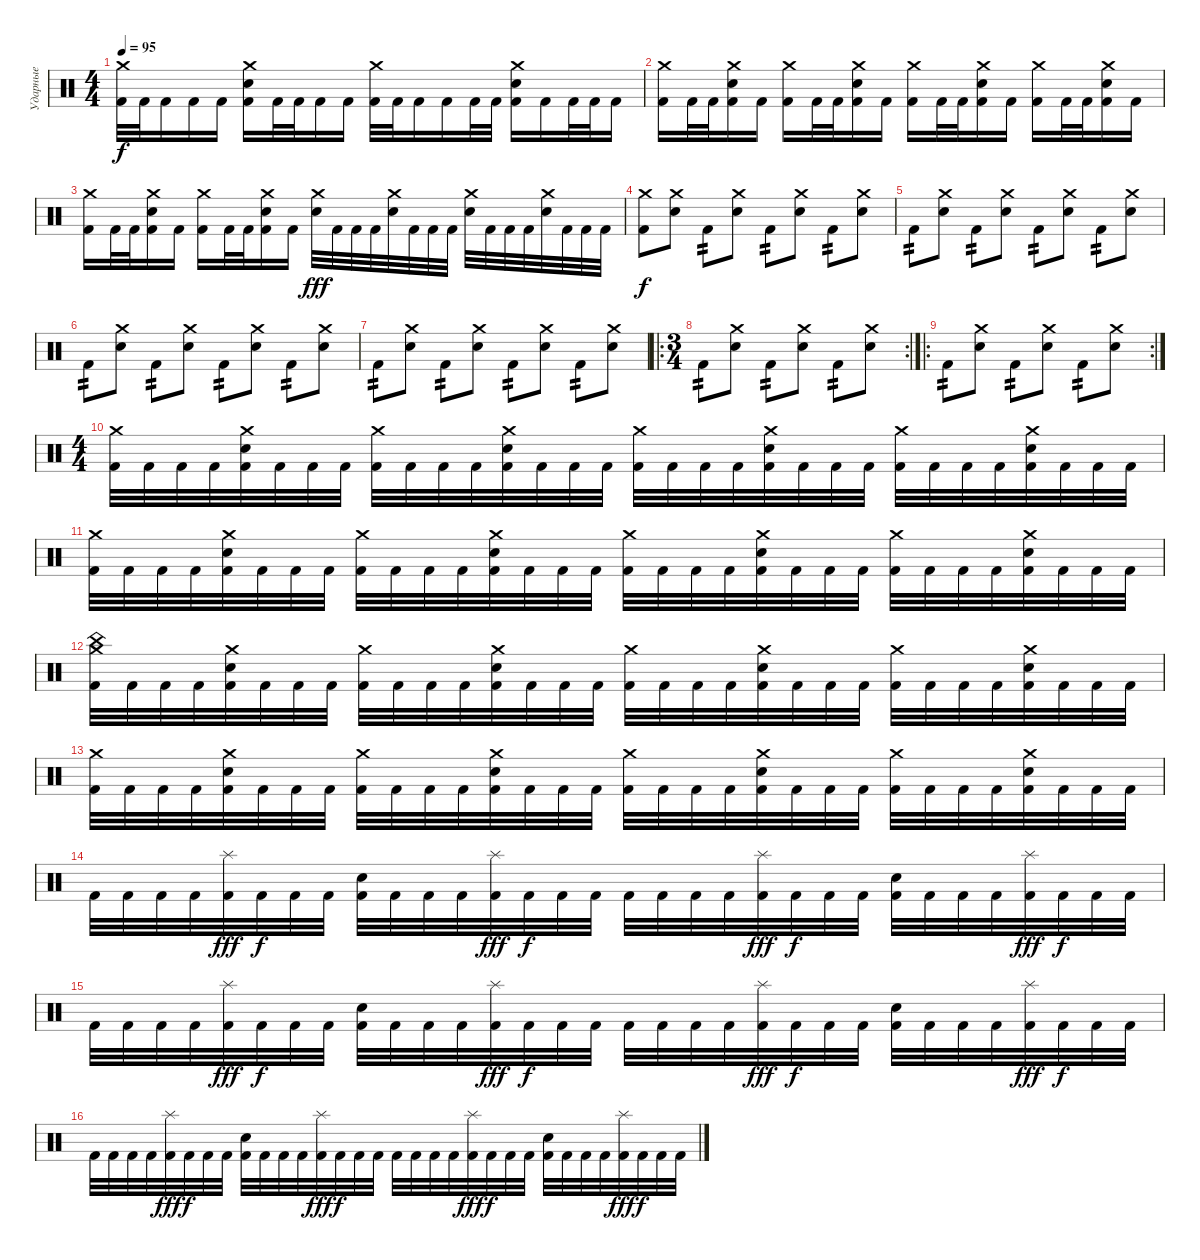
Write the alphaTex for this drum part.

\track ("Ударные" "Ударные") {instrument percussion}
\staff {score}
\articulation defaults
\ts (4 4)
\tempo 95
\clef neutral
\ks c
("Crash medium (hit)" "Kick (hit) 2").32{dy f} "Kick (hit) 2".32 "Kick (hit) 2".16 "Kick (hit) 2".16 "Kick (hit) 2".16 ("Electric Snare (hit)" "Kick (hit) 2" "Crash medium (hit)").16 "Kick (hit) 2".32 "Kick (hit) 2".32 "Kick (hit) 2".16 "Kick (hit) 2".16 ("Crash medium (hit)" "Kick (hit) 2").32 "Kick (hit) 2".32 "Kick (hit) 2".16 "Kick (hit) 2".16 "Kick (hit) 2".32 "Kick (hit) 2".32 ("Electric Snare (hit)" "Kick (hit) 2" "Crash medium (hit)").16 "Kick (hit) 2".16 "Kick (hit) 2".32 "Kick (hit) 2".32 "Kick (hit) 2".16 |
("Kick (hit) 2" "Crash medium (hit)").16 "Kick (hit) 2".32 "Kick (hit) 2".32 ("Kick (hit) 2" "Crash medium (hit)" "Electric Snare (hit)").16 "Kick (hit) 2".16 ("Kick (hit) 2" "Crash medium (hit)").16 "Kick (hit) 2".32 "Kick (hit) 2".32 ("Kick (hit) 2" "Crash medium (hit)" "Electric Snare (hit)").16 "Kick (hit) 2".16 ("Kick (hit) 2" "Crash medium (hit)").16 "Kick (hit) 2".32 "Kick (hit) 2".32 ("Kick (hit) 2" "Crash medium (hit)" "Electric Snare (hit)").16 "Kick (hit) 2".16 ("Kick (hit) 2" "Crash medium (hit)").16 "Kick (hit) 2".32 "Kick (hit) 2".32 ("Kick (hit) 2" "Crash medium (hit)" "Electric Snare (hit)").16 "Kick (hit) 2".16 |
("Kick (hit) 2" "Crash medium (hit)").16 "Kick (hit) 2".32 "Kick (hit) 2".32 ("Kick (hit) 2" "Crash medium (hit)" "Electric Snare (hit)").16 "Kick (hit) 2".16 ("Kick (hit) 2" "Crash medium (hit)").16 "Kick (hit) 2".32 "Kick (hit) 2".32 ("Kick (hit) 2" "Crash medium (hit)" "Electric Snare (hit)").16 "Kick (hit) 2".16 ("Crash medium (hit)" "Electric Snare (hit)").32{dy fff} "Kick (hit) 2".32 "Kick (hit) 2".32 "Kick (hit) 2".32 ("Crash medium (hit)" "Electric Snare (hit)").32 "Kick (hit) 2".32 "Kick (hit) 2".32 "Kick (hit) 2".32 ("Crash medium (hit)" "Electric Snare (hit)").32 "Kick (hit) 2".32 "Kick (hit) 2".32 "Kick (hit) 2".32 ("Crash medium (hit)" "Electric Snare (hit)").32 "Kick (hit) 2".32 "Kick (hit) 2".32 "Kick (hit) 2".32 |
("Crash medium (hit)" "Kick (hit) 2").8{dy f} ("Crash medium (hit)" "Electric Snare (hit)").8 "Kick (hit) 2".8{tp 2} ("Crash medium (hit)" "Electric Snare (hit)").8 "Kick (hit) 2".8{tp 2} ("Crash medium (hit)" "Electric Snare (hit)").8 "Kick (hit) 2".8{tp 2} ("Crash medium (hit)" "Electric Snare (hit)").8 |
"Kick (hit) 2".8{tp 2} ("Crash medium (hit)" "Electric Snare (hit)").8 "Kick (hit) 2".8{tp 2} ("Crash medium (hit)" "Electric Snare (hit)").8 "Kick (hit) 2".8{tp 2} ("Crash medium (hit)" "Electric Snare (hit)").8 "Kick (hit) 2".8{tp 2} ("Crash medium (hit)" "Electric Snare (hit)").8 |
"Kick (hit) 2".8{tp 2} ("Crash medium (hit)" "Electric Snare (hit)").8 "Kick (hit) 2".8{tp 2} ("Crash medium (hit)" "Electric Snare (hit)").8 "Kick (hit) 2".8{tp 2} ("Crash medium (hit)" "Electric Snare (hit)").8 "Kick (hit) 2".8{tp 2} ("Crash medium (hit)" "Electric Snare (hit)").8 |
"Kick (hit) 2".8{tp 2} ("Crash medium (hit)" "Electric Snare (hit)").8 "Kick (hit) 2".8{tp 2} ("Crash medium (hit)" "Electric Snare (hit)").8 "Kick (hit) 2".8{tp 2} ("Crash medium (hit)" "Electric Snare (hit)").8 "Kick (hit) 2".8{tp 2} ("Crash medium (hit)" "Electric Snare (hit)").8 |
\ro
\rc 2
\ts (3 4)
"Kick (hit) 2".8{tp 2} ("Crash medium (hit)" "Electric Snare (hit)").8 "Kick (hit) 2".8{tp 2} ("Crash medium (hit)" "Electric Snare (hit)").8 "Kick (hit) 2".8{tp 2} ("Crash medium (hit)" "Electric Snare (hit)").8 |
\ro
\rc 2 "Kick (hit) 2".8{tp 2}
("Crash medium (hit)" "Electric Snare (hit)").8 "Kick (hit) 2".8{tp 2} ("Crash medium (hit)" "Electric Snare (hit)").8 "Kick (hit) 2".8{tp 2} ("Crash medium (hit)" "Electric Snare (hit)").8 |
\ts (4 4)
("Kick (hit) 2" "Crash medium (hit)").32 "Kick (hit) 2".32 "Kick (hit) 2".32 "Kick (hit) 2".32 ("Kick (hit) 2" "Electric Snare (hit)" "Crash medium (hit)").32 "Kick (hit) 2".32 "Kick (hit) 2".32 "Kick (hit) 2".32 ("Kick (hit) 2" "Crash medium (hit)").32 "Kick (hit) 2".32 "Kick (hit) 2".32 "Kick (hit) 2".32 ("Kick (hit) 2" "Electric Snare (hit)" "Crash medium (hit)").32 "Kick (hit) 2".32 "Kick (hit) 2".32 "Kick (hit) 2".32 ("Kick (hit) 2" "Crash medium (hit)").32 "Kick (hit) 2".32 "Kick (hit) 2".32 "Kick (hit) 2".32 ("Kick (hit) 2" "Electric Snare (hit)" "Crash medium (hit)").32 "Kick (hit) 2".32 "Kick (hit) 2".32 "Kick (hit) 2".32 ("Kick (hit) 2" "Crash medium (hit)").32 "Kick (hit) 2".32 "Kick (hit) 2".32 "Kick (hit) 2".32 ("Kick (hit) 2" "Electric Snare (hit)" "Crash medium (hit)").32 "Kick (hit) 2".32 "Kick (hit) 2".32 "Kick (hit) 2".32 |
("Kick (hit) 2" "Crash medium (hit)").32 "Kick (hit) 2".32 "Kick (hit) 2".32 "Kick (hit) 2".32 ("Kick (hit) 2" "Electric Snare (hit)" "Crash medium (hit)").32 "Kick (hit) 2".32 "Kick (hit) 2".32 "Kick (hit) 2".32 ("Kick (hit) 2" "Crash medium (hit)").32 "Kick (hit) 2".32 "Kick (hit) 2".32 "Kick (hit) 2".32 ("Kick (hit) 2" "Electric Snare (hit)" "Crash medium (hit)").32 "Kick (hit) 2".32 "Kick (hit) 2".32 "Kick (hit) 2".32 ("Kick (hit) 2" "Crash medium (hit)").32 "Kick (hit) 2".32 "Kick (hit) 2".32 "Kick (hit) 2".32 ("Kick (hit) 2" "Electric Snare (hit)" "Crash medium (hit)").32 "Kick (hit) 2".32 "Kick (hit) 2".32 "Kick (hit) 2".32 ("Kick (hit) 2" "Crash medium (hit)").32 "Kick (hit) 2".32 "Kick (hit) 2".32 "Kick (hit) 2".32 ("Kick (hit) 2" "Electric Snare (hit)" "Crash medium (hit)").32 "Kick (hit) 2".32 "Kick (hit) 2".32 "Kick (hit) 2".32 |
("Kick (hit) 2" "China (hit)" "Crash medium (hit)").32 "Kick (hit) 2".32 "Kick (hit) 2".32 "Kick (hit) 2".32 ("Kick (hit) 2" "Electric Snare (hit)" "Crash medium (hit)").32 "Kick (hit) 2".32 "Kick (hit) 2".32 "Kick (hit) 2".32 ("Kick (hit) 2" "Crash medium (hit)").32 "Kick (hit) 2".32 "Kick (hit) 2".32 "Kick (hit) 2".32 ("Kick (hit) 2" "Electric Snare (hit)" "Crash medium (hit)").32 "Kick (hit) 2".32 "Kick (hit) 2".32 "Kick (hit) 2".32 ("Kick (hit) 2" "Crash medium (hit)").32 "Kick (hit) 2".32 "Kick (hit) 2".32 "Kick (hit) 2".32 ("Kick (hit) 2" "Electric Snare (hit)" "Crash medium (hit)").32 "Kick (hit) 2".32 "Kick (hit) 2".32 "Kick (hit) 2".32 ("Kick (hit) 2" "Crash medium (hit)").32 "Kick (hit) 2".32 "Kick (hit) 2".32 "Kick (hit) 2".32 ("Kick (hit) 2" "Electric Snare (hit)" "Crash medium (hit)").32 "Kick (hit) 2".32 "Kick (hit) 2".32 "Kick (hit) 2".32 |
("Kick (hit) 2" "Crash medium (hit)").32 "Kick (hit) 2".32 "Kick (hit) 2".32 "Kick (hit) 2".32 ("Kick (hit) 2" "Electric Snare (hit)" "Crash medium (hit)").32 "Kick (hit) 2".32 "Kick (hit) 2".32 "Kick (hit) 2".32 ("Kick (hit) 2" "Crash medium (hit)").32 "Kick (hit) 2".32 "Kick (hit) 2".32 "Kick (hit) 2".32 ("Kick (hit) 2" "Electric Snare (hit)" "Crash medium (hit)").32 "Kick (hit) 2".32 "Kick (hit) 2".32 "Kick (hit) 2".32 ("Kick (hit) 2" "Crash medium (hit)").32 "Kick (hit) 2".32 "Kick (hit) 2".32 "Kick (hit) 2".32 ("Kick (hit) 2" "Electric Snare (hit)" "Crash medium (hit)").32 "Kick (hit) 2".32 "Kick (hit) 2".32 "Kick (hit) 2".32 ("Kick (hit) 2" "Crash medium (hit)").32 "Kick (hit) 2".32 "Kick (hit) 2".32 "Kick (hit) 2".32 ("Kick (hit) 2" "Electric Snare (hit)" "Crash medium (hit)").32 "Kick (hit) 2".32 "Kick (hit) 2".32 "Kick (hit) 2".32 |
"Kick (hit) 2".32 "Kick (hit) 2".32 "Kick (hit) 2".32 "Kick (hit) 2".32 ("Kick (hit) 2" "Splash (hit)").32{dy fff} "Kick (hit) 2".32{dy f} "Kick (hit) 2".32 "Kick (hit) 2".32 ("Kick (hit) 2" "Electric Snare (hit)").32 "Kick (hit) 2".32 "Kick (hit) 2".32 "Kick (hit) 2".32 ("Kick (hit) 2" "Splash (hit)").32{dy fff} "Kick (hit) 2".32{dy f} "Kick (hit) 2".32 "Kick (hit) 2".32 "Kick (hit) 2".32 "Kick (hit) 2".32 "Kick (hit) 2".32 "Kick (hit) 2".32 ("Kick (hit) 2" "Splash (hit)").32{dy fff} "Kick (hit) 2".32{dy f} "Kick (hit) 2".32 "Kick (hit) 2".32 ("Kick (hit) 2" "Electric Snare (hit)").32 "Kick (hit) 2".32 "Kick (hit) 2".32 "Kick (hit) 2".32 ("Kick (hit) 2" "Splash (hit)").32{dy fff} "Kick (hit) 2".32{dy f} "Kick (hit) 2".32 "Kick (hit) 2".32 |
"Kick (hit) 2".32 "Kick (hit) 2".32 "Kick (hit) 2".32 "Kick (hit) 2".32 ("Kick (hit) 2" "Splash (hit)").32{dy fff} "Kick (hit) 2".32{dy f} "Kick (hit) 2".32 "Kick (hit) 2".32 ("Kick (hit) 2" "Electric Snare (hit)").32 "Kick (hit) 2".32 "Kick (hit) 2".32 "Kick (hit) 2".32 ("Kick (hit) 2" "Splash (hit)").32{dy fff} "Kick (hit) 2".32{dy f} "Kick (hit) 2".32 "Kick (hit) 2".32 "Kick (hit) 2".32 "Kick (hit) 2".32 "Kick (hit) 2".32 "Kick (hit) 2".32 ("Kick (hit) 2" "Splash (hit)").32{dy fff} "Kick (hit) 2".32{dy f} "Kick (hit) 2".32 "Kick (hit) 2".32 ("Kick (hit) 2" "Electric Snare (hit)").32 "Kick (hit) 2".32 "Kick (hit) 2".32 "Kick (hit) 2".32 ("Kick (hit) 2" "Splash (hit)").32{dy fff} "Kick (hit) 2".32{dy f} "Kick (hit) 2".32 "Kick (hit) 2".32 |
"Kick (hit) 2".32 "Kick (hit) 2".32 "Kick (hit) 2".32 "Kick (hit) 2".32 ("Kick (hit) 2" "Splash (hit)").32{dy fff} "Kick (hit) 2".32{dy f} "Kick (hit) 2".32 "Kick (hit) 2".32 ("Kick (hit) 2" "Electric Snare (hit)").32 "Kick (hit) 2".32 "Kick (hit) 2".32 "Kick (hit) 2".32 ("Kick (hit) 2" "Splash (hit)").32{dy fff} "Kick (hit) 2".32{dy f} "Kick (hit) 2".32 "Kick (hit) 2".32 "Kick (hit) 2".32 "Kick (hit) 2".32 "Kick (hit) 2".32 "Kick (hit) 2".32 ("Kick (hit) 2" "Splash (hit)").32{dy fff} "Kick (hit) 2".32{dy f} "Kick (hit) 2".32 "Kick (hit) 2".32 ("Kick (hit) 2" "Electric Snare (hit)").32 "Kick (hit) 2".32 "Kick (hit) 2".32 "Kick (hit) 2".32 ("Kick (hit) 2" "Splash (hit)").32{dy fff} "Kick (hit) 2".32{dy f} "Kick (hit) 2".32 "Kick (hit) 2".32
